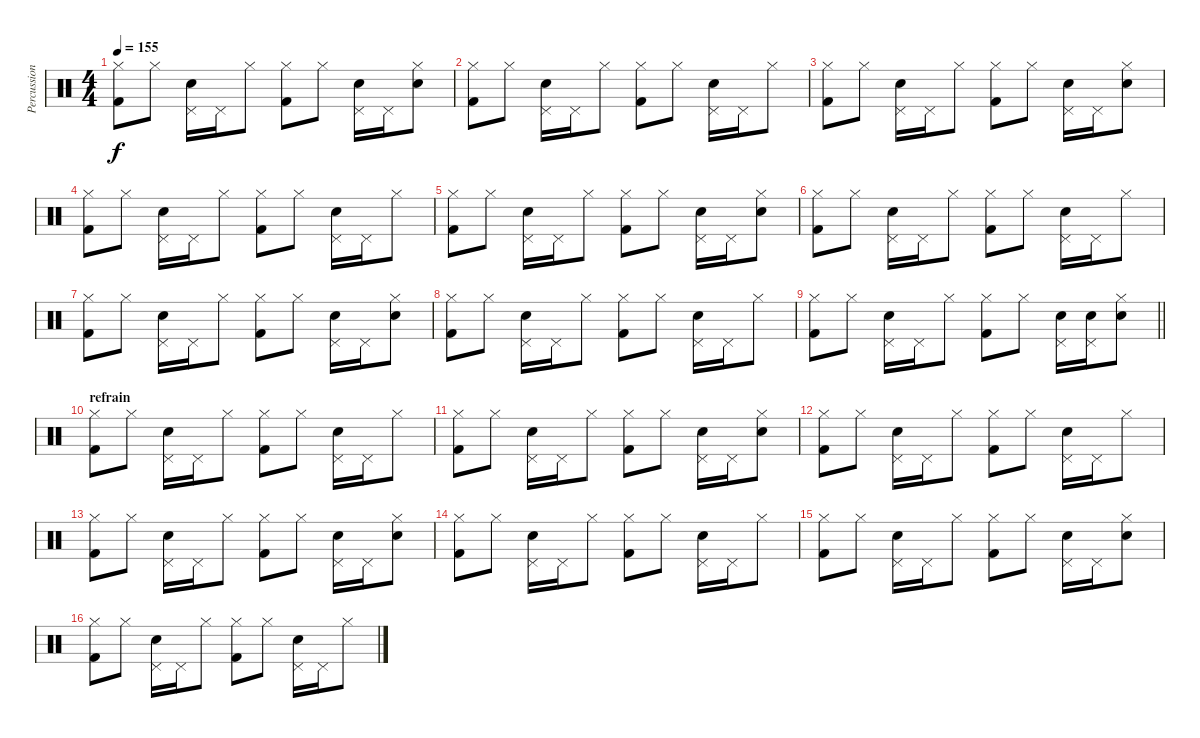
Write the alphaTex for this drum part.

\track ("Percussions" "Percussion") {instrument percussion}
\staff {score}
\articulation defaults
\ts (4 4)
\tempo 155
\clef neutral
\ks c
("Kick (hit) 2" "Hi-Hat (closed)").8{dy f} "Hi-Hat (closed)".8 ("Electric Snare (hit)" "Pedal Hi-Hat (hit)").16 "Pedal Hi-Hat (hit)".16 "Hi-Hat (closed)".8 ("Kick (hit) 2" "Hi-Hat (closed)").8 "Hi-Hat (closed)".8 ("Electric Snare (hit)" "Pedal Hi-Hat (hit)").16 "Pedal Hi-Hat (hit)".16 ("Electric Snare (hit)" "Hi-Hat (closed)").8 |
("Kick (hit) 2" "Hi-Hat (closed)").8 "Hi-Hat (closed)".8 ("Electric Snare (hit)" "Pedal Hi-Hat (hit)").16 "Pedal Hi-Hat (hit)".16 "Hi-Hat (closed)".8 ("Kick (hit) 2" "Hi-Hat (closed)").8 "Hi-Hat (closed)".8 ("Electric Snare (hit)" "Pedal Hi-Hat (hit)").16 "Pedal Hi-Hat (hit)".16 "Hi-Hat (closed)".8 |
("Kick (hit) 2" "Hi-Hat (closed)").8 "Hi-Hat (closed)".8 ("Electric Snare (hit)" "Pedal Hi-Hat (hit)").16 "Pedal Hi-Hat (hit)".16 "Hi-Hat (closed)".8 ("Kick (hit) 2" "Hi-Hat (closed)").8 "Hi-Hat (closed)".8 ("Electric Snare (hit)" "Pedal Hi-Hat (hit)").16 "Pedal Hi-Hat (hit)".16 ("Electric Snare (hit)" "Hi-Hat (closed)").8 |
("Kick (hit) 2" "Hi-Hat (closed)").8 "Hi-Hat (closed)".8 ("Electric Snare (hit)" "Pedal Hi-Hat (hit)").16 "Pedal Hi-Hat (hit)".16 "Hi-Hat (closed)".8 ("Kick (hit) 2" "Hi-Hat (closed)").8 "Hi-Hat (closed)".8 ("Electric Snare (hit)" "Pedal Hi-Hat (hit)").16 "Pedal Hi-Hat (hit)".16 "Hi-Hat (closed)".8 |
("Kick (hit) 2" "Hi-Hat (closed)").8 "Hi-Hat (closed)".8 ("Electric Snare (hit)" "Pedal Hi-Hat (hit)").16 "Pedal Hi-Hat (hit)".16 "Hi-Hat (closed)".8 ("Kick (hit) 2" "Hi-Hat (closed)").8 "Hi-Hat (closed)".8 ("Electric Snare (hit)" "Pedal Hi-Hat (hit)").16 "Pedal Hi-Hat (hit)".16 ("Electric Snare (hit)" "Hi-Hat (closed)").8 |
("Kick (hit) 2" "Hi-Hat (closed)").8 "Hi-Hat (closed)".8 ("Electric Snare (hit)" "Pedal Hi-Hat (hit)").16 "Pedal Hi-Hat (hit)".16 "Hi-Hat (closed)".8 ("Kick (hit) 2" "Hi-Hat (closed)").8 "Hi-Hat (closed)".8 ("Electric Snare (hit)" "Pedal Hi-Hat (hit)").16 "Pedal Hi-Hat (hit)".16 "Hi-Hat (closed)".8 |
("Kick (hit) 2" "Hi-Hat (closed)").8 "Hi-Hat (closed)".8 ("Electric Snare (hit)" "Pedal Hi-Hat (hit)").16 "Pedal Hi-Hat (hit)".16 "Hi-Hat (closed)".8 ("Kick (hit) 2" "Hi-Hat (closed)").8 "Hi-Hat (closed)".8 ("Electric Snare (hit)" "Pedal Hi-Hat (hit)").16 "Pedal Hi-Hat (hit)".16 ("Electric Snare (hit)" "Hi-Hat (closed)").8 |
("Kick (hit) 2" "Hi-Hat (closed)").8 "Hi-Hat (closed)".8 ("Electric Snare (hit)" "Pedal Hi-Hat (hit)").16 "Pedal Hi-Hat (hit)".16 "Hi-Hat (closed)".8 ("Kick (hit) 2" "Hi-Hat (closed)").8 "Hi-Hat (closed)".8 ("Electric Snare (hit)" "Pedal Hi-Hat (hit)").16 "Pedal Hi-Hat (hit)".16 "Hi-Hat (closed)".8 |
\barLineRight lightlight
("Kick (hit) 2" "Hi-Hat (closed)").8 "Hi-Hat (closed)".8 ("Electric Snare (hit)" "Pedal Hi-Hat (hit)").16 "Pedal Hi-Hat (hit)".16 "Hi-Hat (closed)".8 ("Kick (hit) 2" "Hi-Hat (closed)").8 "Hi-Hat (closed)".8 ("Electric Snare (hit)" "Pedal Hi-Hat (hit)").16 ("Electric Snare (hit)" "Pedal Hi-Hat (hit)").16 ("Electric Snare (hit)" "Hi-Hat (closed)").8 |
\section ("" "refrain")
("Kick (hit) 2" "Hi-Hat (closed)").8 "Hi-Hat (closed)".8 ("Electric Snare (hit)" "Pedal Hi-Hat (hit)").16 "Pedal Hi-Hat (hit)".16 "Hi-Hat (closed)".8 ("Kick (hit) 2" "Hi-Hat (closed)").8 "Hi-Hat (closed)".8 ("Electric Snare (hit)" "Pedal Hi-Hat (hit)").16 "Pedal Hi-Hat (hit)".16 "Hi-Hat (closed)".8 |
("Kick (hit) 2" "Hi-Hat (closed)").8 "Hi-Hat (closed)".8 ("Electric Snare (hit)" "Pedal Hi-Hat (hit)").16 "Pedal Hi-Hat (hit)".16 "Hi-Hat (closed)".8 ("Kick (hit) 2" "Hi-Hat (closed)").8 "Hi-Hat (closed)".8 ("Electric Snare (hit)" "Pedal Hi-Hat (hit)").16 "Pedal Hi-Hat (hit)".16 ("Electric Snare (hit)" "Hi-Hat (closed)").8 |
("Kick (hit) 2" "Hi-Hat (closed)").8 "Hi-Hat (closed)".8 ("Electric Snare (hit)" "Pedal Hi-Hat (hit)").16 "Pedal Hi-Hat (hit)".16 "Hi-Hat (closed)".8 ("Kick (hit) 2" "Hi-Hat (closed)").8 "Hi-Hat (closed)".8 ("Electric Snare (hit)" "Pedal Hi-Hat (hit)").16 "Pedal Hi-Hat (hit)".16 "Hi-Hat (closed)".8 |
("Kick (hit) 2" "Hi-Hat (closed)").8 "Hi-Hat (closed)".8 ("Electric Snare (hit)" "Pedal Hi-Hat (hit)").16 "Pedal Hi-Hat (hit)".16 "Hi-Hat (closed)".8 ("Kick (hit) 2" "Hi-Hat (closed)").8 "Hi-Hat (closed)".8 ("Electric Snare (hit)" "Pedal Hi-Hat (hit)").16 "Pedal Hi-Hat (hit)".16 ("Electric Snare (hit)" "Hi-Hat (closed)").8 |
("Kick (hit) 2" "Hi-Hat (closed)").8 "Hi-Hat (closed)".8 ("Electric Snare (hit)" "Pedal Hi-Hat (hit)").16 "Pedal Hi-Hat (hit)".16 "Hi-Hat (closed)".8 ("Kick (hit) 2" "Hi-Hat (closed)").8 "Hi-Hat (closed)".8 ("Electric Snare (hit)" "Pedal Hi-Hat (hit)").16 "Pedal Hi-Hat (hit)".16 "Hi-Hat (closed)".8 |
("Kick (hit) 2" "Hi-Hat (closed)").8 "Hi-Hat (closed)".8 ("Electric Snare (hit)" "Pedal Hi-Hat (hit)").16 "Pedal Hi-Hat (hit)".16 "Hi-Hat (closed)".8 ("Kick (hit) 2" "Hi-Hat (closed)").8 "Hi-Hat (closed)".8 ("Electric Snare (hit)" "Pedal Hi-Hat (hit)").16 "Pedal Hi-Hat (hit)".16 ("Electric Snare (hit)" "Hi-Hat (closed)").8 |
("Kick (hit) 2" "Hi-Hat (closed)").8 "Hi-Hat (closed)".8 ("Electric Snare (hit)" "Pedal Hi-Hat (hit)").16 "Pedal Hi-Hat (hit)".16 "Hi-Hat (closed)".8 ("Kick (hit) 2" "Hi-Hat (closed)").8 "Hi-Hat (closed)".8 ("Electric Snare (hit)" "Pedal Hi-Hat (hit)").16 "Pedal Hi-Hat (hit)".16 "Hi-Hat (closed)".8
